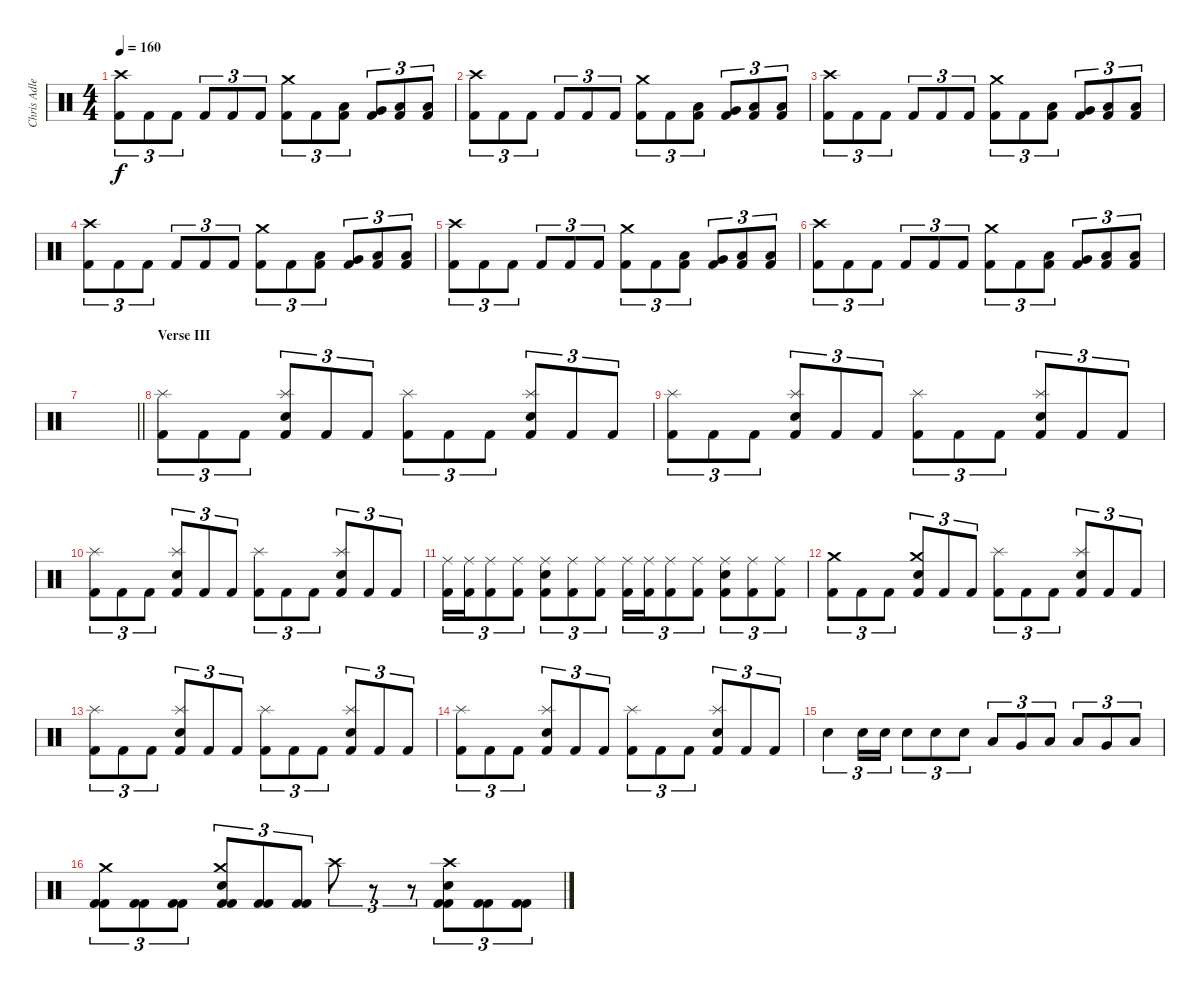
\track ("Chris Adler" "Chris Adle") {instrument percussion}
\staff {score}
\articulation defaults
\ts (4 4)
\tempo 160
\clef neutral
\ks c
("Crash high (hit)" "Kick (hit) 2").8{tu (3 2) dy f} "Kick (hit) 2".8{tu (3 2)} "Kick (hit) 2".8{tu (3 2)} "Kick (hit) 2".8{tu (3 2)} "Kick (hit) 2".8{tu (3 2)} "Kick (hit) 2".8{tu (3 2)} ("Crash medium (hit)" "Kick (hit) 2").8{tu (3 2)} "Kick (hit) 2".8{tu (3 2)} ("Low Tom (hit)" "Kick (hit) 2").8{tu (3 2)} ("Very Low Tom (hit)" "Kick (hit) 2").8{tu (3 2)} ("Low Floor Tom (hit)" "Kick (hit) 2").8{tu (3 2)} ("Low Floor Tom (hit)" "Kick (hit) 2").8{tu (3 2)} |
("Crash high (hit)" "Kick (hit) 2").8{tu (3 2)} "Kick (hit) 2".8{tu (3 2)} "Kick (hit) 2".8{tu (3 2)} "Kick (hit) 2".8{tu (3 2)} "Kick (hit) 2".8{tu (3 2)} "Kick (hit) 2".8{tu (3 2)} ("Crash medium (hit)" "Kick (hit) 2").8{tu (3 2)} "Kick (hit) 2".8{tu (3 2)} ("Low Tom (hit)" "Kick (hit) 2").8{tu (3 2)} ("Very Low Tom (hit)" "Kick (hit) 2").8{tu (3 2)} ("Low Floor Tom (hit)" "Kick (hit) 2").8{tu (3 2)} ("Low Floor Tom (hit)" "Kick (hit) 2").8{tu (3 2)} |
("Crash high (hit)" "Kick (hit) 2").8{tu (3 2)} "Kick (hit) 2".8{tu (3 2)} "Kick (hit) 2".8{tu (3 2)} "Kick (hit) 2".8{tu (3 2)} "Kick (hit) 2".8{tu (3 2)} "Kick (hit) 2".8{tu (3 2)} ("Crash medium (hit)" "Kick (hit) 2").8{tu (3 2)} "Kick (hit) 2".8{tu (3 2)} ("Low Tom (hit)" "Kick (hit) 2").8{tu (3 2)} ("Very Low Tom (hit)" "Kick (hit) 2").8{tu (3 2)} ("Low Floor Tom (hit)" "Kick (hit) 2").8{tu (3 2)} ("Low Floor Tom (hit)" "Kick (hit) 2").8{tu (3 2)} |
("Crash high (hit)" "Kick (hit) 2").8{tu (3 2)} "Kick (hit) 2".8{tu (3 2)} "Kick (hit) 2".8{tu (3 2)} "Kick (hit) 2".8{tu (3 2)} "Kick (hit) 2".8{tu (3 2)} "Kick (hit) 2".8{tu (3 2)} ("Crash medium (hit)" "Kick (hit) 2").8{tu (3 2)} "Kick (hit) 2".8{tu (3 2)} ("Low Tom (hit)" "Kick (hit) 2").8{tu (3 2)} ("Very Low Tom (hit)" "Kick (hit) 2").8{tu (3 2)} ("Low Floor Tom (hit)" "Kick (hit) 2").8{tu (3 2)} ("Low Floor Tom (hit)" "Kick (hit) 2").8{tu (3 2)} |
("Crash high (hit)" "Kick (hit) 2").8{tu (3 2)} "Kick (hit) 2".8{tu (3 2)} "Kick (hit) 2".8{tu (3 2)} "Kick (hit) 2".8{tu (3 2)} "Kick (hit) 2".8{tu (3 2)} "Kick (hit) 2".8{tu (3 2)} ("Crash medium (hit)" "Kick (hit) 2").8{tu (3 2)} "Kick (hit) 2".8{tu (3 2)} ("Low Tom (hit)" "Kick (hit) 2").8{tu (3 2)} ("Very Low Tom (hit)" "Kick (hit) 2").8{tu (3 2)} ("Low Floor Tom (hit)" "Kick (hit) 2").8{tu (3 2)} ("Low Floor Tom (hit)" "Kick (hit) 2").8{tu (3 2)} |
("Crash high (hit)" "Kick (hit) 2").8{tu (3 2)} "Kick (hit) 2".8{tu (3 2)} "Kick (hit) 2".8{tu (3 2)} "Kick (hit) 2".8{tu (3 2)} "Kick (hit) 2".8{tu (3 2)} "Kick (hit) 2".8{tu (3 2)} ("Crash medium (hit)" "Kick (hit) 2").8{tu (3 2)} "Kick (hit) 2".8{tu (3 2)} ("Low Tom (hit)" "Kick (hit) 2").8{tu (3 2)} ("Very Low Tom (hit)" "Kick (hit) 2").8{tu (3 2)} ("Low Floor Tom (hit)" "Kick (hit) 2").8{tu (3 2)} ("Low Floor Tom (hit)" "Kick (hit) 2").8{tu (3 2)} |
\barLineRight lightlight
|
\section ("" "Verse III")
("Splash (hit)" "Kick (hit) 2").8{tu (3 2)} "Kick (hit) 2".8{tu (3 2)} "Kick (hit) 2".8{tu (3 2)} ("Splash (hit)" "Snare (hit) 2" "Kick (hit) 2").8{tu (3 2)} "Kick (hit) 2".8{tu (3 2)} "Kick (hit) 2".8{tu (3 2)} ("Splash (hit)" "Kick (hit) 2").8{tu (3 2)} "Kick (hit) 2".8{tu (3 2)} "Kick (hit) 2".8{tu (3 2)} ("Splash (hit)" "Snare (hit) 2" "Kick (hit) 2").8{tu (3 2)} "Kick (hit) 2".8{tu (3 2)} "Kick (hit) 2".8{tu (3 2)} |
("Splash (hit)" "Kick (hit) 2").8{tu (3 2)} "Kick (hit) 2".8{tu (3 2)} "Kick (hit) 2".8{tu (3 2)} ("Splash (hit)" "Snare (hit) 2" "Kick (hit) 2").8{tu (3 2)} "Kick (hit) 2".8{tu (3 2)} "Kick (hit) 2".8{tu (3 2)} ("Splash (hit)" "Kick (hit) 2").8{tu (3 2)} "Kick (hit) 2".8{tu (3 2)} "Kick (hit) 2".8{tu (3 2)} ("Splash (hit)" "Snare (hit) 2" "Kick (hit) 2").8{tu (3 2)} "Kick (hit) 2".8{tu (3 2)} "Kick (hit) 2".8{tu (3 2)} |
("Splash (hit)" "Kick (hit) 2").8{tu (3 2)} "Kick (hit) 2".8{tu (3 2)} "Kick (hit) 2".8{tu (3 2)} ("Splash (hit)" "Snare (hit) 2" "Kick (hit) 2").8{tu (3 2)} "Kick (hit) 2".8{tu (3 2)} "Kick (hit) 2".8{tu (3 2)} ("Splash (hit)" "Kick (hit) 2").8{tu (3 2)} "Kick (hit) 2".8{tu (3 2)} "Kick (hit) 2".8{tu (3 2)} ("Splash (hit)" "Snare (hit) 2" "Kick (hit) 2").8{tu (3 2)} "Kick (hit) 2".8{tu (3 2)} "Kick (hit) 2".8{tu (3 2)} |
("Ride (middle)" "Kick (hit) 2").16{tu (3 2)} ("Ride (middle)" "Kick (hit) 2").16{tu (3 2)} ("Ride (middle)" "Kick (hit) 2").8{tu (3 2)} ("Ride (middle)" "Kick (hit) 2").8{tu (3 2)} ("Ride (middle)" "Snare (hit) 2" "Kick (hit) 2").8{tu (3 2)} ("Ride (middle)" "Kick (hit) 2").8{tu (3 2)} ("Ride (middle)" "Kick (hit) 2").8{tu (3 2)} ("Ride (middle)" "Kick (hit) 2").16{tu (3 2)} ("Ride (middle)" "Kick (hit) 2").16{tu (3 2)} ("Ride (middle)" "Kick (hit) 2").8{tu (3 2)} ("Ride (middle)" "Kick (hit) 2").8{tu (3 2)} ("Ride (middle)" "Snare (hit) 2" "Kick (hit) 2").8{tu (3 2)} ("Ride (middle)" "Kick (hit) 2").8{tu (3 2)} ("Ride (middle)" "Kick (hit) 2").8{tu (3 2)} |
("Crash medium (hit)" "Kick (hit) 2").8{tu (3 2)} "Kick (hit) 2".8{tu (3 2)} "Kick (hit) 2".8{tu (3 2)} ("Crash medium (hit)" "Snare (hit) 2" "Kick (hit) 2").8{tu (3 2)} "Kick (hit) 2".8{tu (3 2)} "Kick (hit) 2".8{tu (3 2)} ("Splash (hit)" "Kick (hit) 2").8{tu (3 2)} "Kick (hit) 2".8{tu (3 2)} "Kick (hit) 2".8{tu (3 2)} ("Splash (hit)" "Snare (hit) 2" "Kick (hit) 2").8{tu (3 2)} "Kick (hit) 2".8{tu (3 2)} "Kick (hit) 2".8{tu (3 2)} |
("Splash (hit)" "Kick (hit) 2").8{tu (3 2)} "Kick (hit) 2".8{tu (3 2)} "Kick (hit) 2".8{tu (3 2)} ("Splash (hit)" "Snare (hit) 2" "Kick (hit) 2").8{tu (3 2)} "Kick (hit) 2".8{tu (3 2)} "Kick (hit) 2".8{tu (3 2)} ("Splash (hit)" "Kick (hit) 2").8{tu (3 2)} "Kick (hit) 2".8{tu (3 2)} "Kick (hit) 2".8{tu (3 2)} ("Splash (hit)" "Snare (hit) 2" "Kick (hit) 2").8{tu (3 2)} "Kick (hit) 2".8{tu (3 2)} "Kick (hit) 2".8{tu (3 2)} |
("Splash (hit)" "Kick (hit) 2").8{tu (3 2)} "Kick (hit) 2".8{tu (3 2)} "Kick (hit) 2".8{tu (3 2)} ("Splash (hit)" "Snare (hit) 2" "Kick (hit) 2").8{tu (3 2)} "Kick (hit) 2".8{tu (3 2)} "Kick (hit) 2".8{tu (3 2)} ("Splash (hit)" "Kick (hit) 2").8{tu (3 2)} "Kick (hit) 2".8{tu (3 2)} "Kick (hit) 2".8{tu (3 2)} ("Splash (hit)" "Snare (hit) 2" "Kick (hit) 2").8{tu (3 2)} "Kick (hit) 2".8{tu (3 2)} "Kick (hit) 2".8{tu (3 2)} |
"Electric Snare (hit)".4{tu (3 2)} "Electric Snare (hit)".16{tu (3 2)} "Electric Snare (hit)".16{tu (3 2)} "Electric Snare (hit)".8{tu (3 2)} "Electric Snare (hit)".8{tu (3 2)} "Electric Snare (hit)".8{tu (3 2)} "Low Tom (hit)".8{tu (3 2)} "Very Low Tom (hit)".8{tu (3 2)} "Low Floor Tom (hit)".8{tu (3 2)} "Low Tom (hit)".8{tu (3 2)} "Very Low Tom (hit)".8{tu (3 2)} "Low Floor Tom (hit)".8{tu (3 2)} |
("Crash medium (hit)" "Kick (hit) 2" "Kick (hit) 2").8{tu (3 2)} ("Kick (hit) 2" "Kick (hit) 2").8{tu (3 2)} ("Kick (hit) 2" "Kick (hit) 2").8{tu (3 2)} ("Crash medium (hit)" "Kick (hit) 2" "Snare (hit) 2" "Kick (hit) 2").8{tu (3 2)} ("Kick (hit) 2" "Kick (hit) 2").8{tu (3 2)} ("Kick (hit) 2" "Kick (hit) 2").8{tu (3 2)} "Crash high (hit)".8{tu (3 2)} r.8{tu (3 2)} r.8{tu (3 2)} ("Crash high (hit)" "Kick (hit) 2" "Snare (hit) 2" "Kick (hit) 2").8{tu (3 2)} ("Kick (hit) 2" "Kick (hit) 2").8{tu (3 2)} ("Kick (hit) 2" "Kick (hit) 2").8{tu (3 2)}
